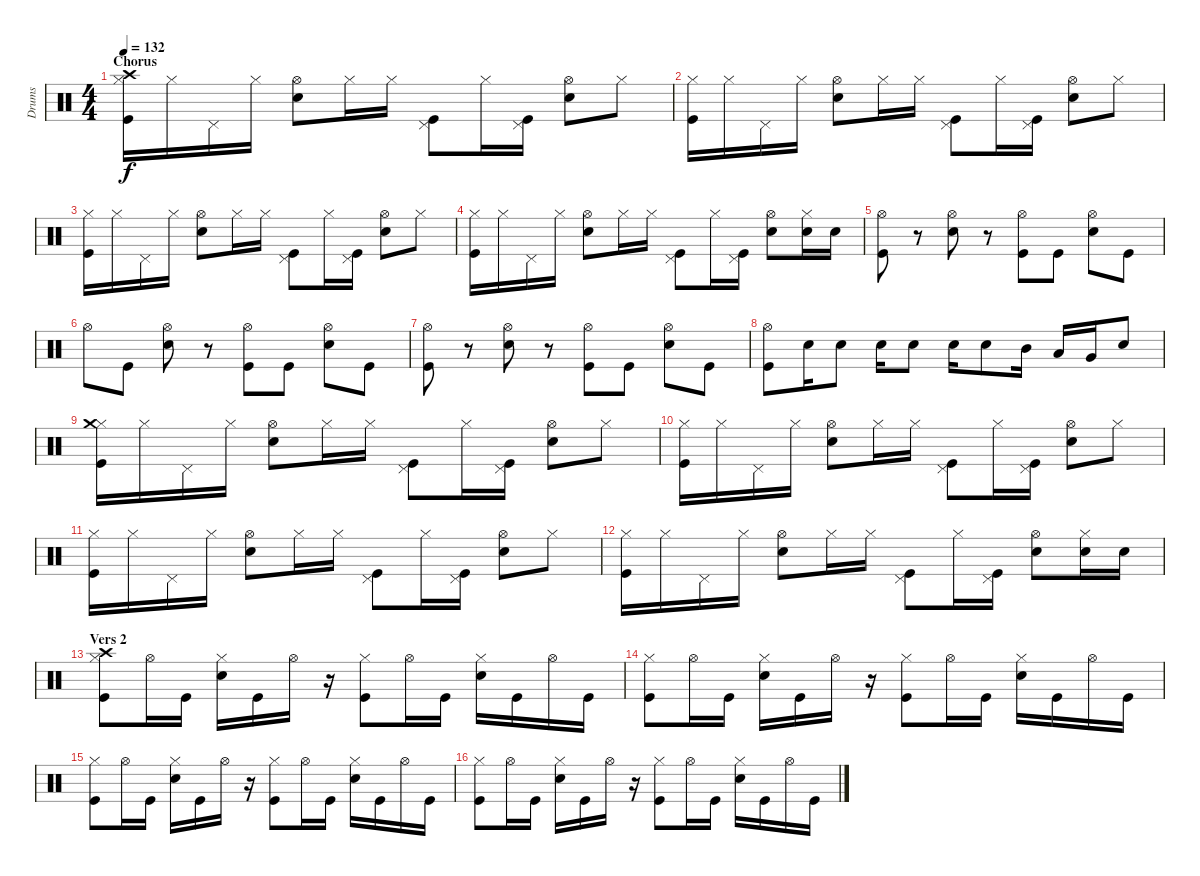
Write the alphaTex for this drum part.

\track ("Drums" "Drums") {instrument percussion}
\staff {score}
\articulation defaults
\ts (4 4)
\section ("" "Chorus")
\tempo 132
\clef neutral
\ks c
("Hi-Hat (closed)" "Crash high (hit)" "Kick (hit)").16{dy f} "Hi-Hat (closed)".16 "Pedal Hi-Hat (hit)".16 "Hi-Hat (closed)".16 ("Hi-Hat (open)" "Snare (hit) 2").8 "Hi-Hat (closed)".16 "Hi-Hat (closed)".16 ("Pedal Hi-Hat (hit)" "Kick (hit)").8 "Hi-Hat (closed)".16 ("Pedal Hi-Hat (hit)" "Kick (hit)").16 ("Hi-Hat (open)" "Snare (hit) 2").8 "Hi-Hat (closed)".8 |
("Hi-Hat (closed)" "Kick (hit)").16 "Hi-Hat (closed)".16 "Pedal Hi-Hat (hit)".16 "Hi-Hat (closed)".16 ("Hi-Hat (open)" "Snare (hit) 2").8 "Hi-Hat (closed)".16 "Hi-Hat (closed)".16 ("Pedal Hi-Hat (hit)" "Kick (hit)").8 "Hi-Hat (closed)".16 ("Pedal Hi-Hat (hit)" "Kick (hit)").16 ("Hi-Hat (open)" "Snare (hit) 2").8 "Hi-Hat (closed)".8 |
("Hi-Hat (closed)" "Kick (hit)").16 "Hi-Hat (closed)".16 "Pedal Hi-Hat (hit)".16 "Hi-Hat (closed)".16 ("Hi-Hat (open)" "Snare (hit) 2").8 "Hi-Hat (closed)".16 "Hi-Hat (closed)".16 ("Pedal Hi-Hat (hit)" "Kick (hit)").8 "Hi-Hat (closed)".16 ("Pedal Hi-Hat (hit)" "Kick (hit)").16 ("Hi-Hat (open)" "Snare (hit) 2").8 "Hi-Hat (closed)".8 |
("Hi-Hat (closed)" "Kick (hit)").16 "Hi-Hat (closed)".16 "Pedal Hi-Hat (hit)".16 "Hi-Hat (closed)".16 ("Hi-Hat (open)" "Snare (hit) 2").8 "Hi-Hat (closed)".16 "Hi-Hat (closed)".16 ("Pedal Hi-Hat (hit)" "Kick (hit)").8 "Hi-Hat (closed)".16 ("Pedal Hi-Hat (hit)" "Kick (hit)").16 ("Hi-Hat (open)" "Snare (hit) 2").8 ("Hi-Hat (closed)" "Snare (hit) 2").16 "Snare (hit) 2".16 |
("Hi-Hat (open)" "Kick (hit)").8 r.8 ("Hi-Hat (open)" "Snare (hit) 2").8 r.8 ("Hi-Hat (open)" "Kick (hit)").8 "Kick (hit)".8 ("Hi-Hat (open)" "Snare (hit) 2").8 "Kick (hit)".8 |
"Hi-Hat (open)".8 "Kick (hit)".8 ("Hi-Hat (open)" "Snare (hit) 2").8 r.8 ("Hi-Hat (open)" "Kick (hit)").8 "Kick (hit)".8 ("Hi-Hat (open)" "Snare (hit) 2").8 "Kick (hit)".8 |
("Hi-Hat (open)" "Kick (hit)").8 r.8 ("Hi-Hat (open)" "Snare (hit) 2").8 r.8 ("Hi-Hat (open)" "Kick (hit)").8 "Kick (hit)".8 ("Hi-Hat (open)" "Snare (hit) 2").8 "Kick (hit)".8 |
("Hi-Hat (open)" "Kick (hit)").8 "Snare (hit) 2".16 "Snare (hit) 2".8 "Snare (hit) 2".16 "Snare (hit) 2".8 "Snare (hit) 2".16 "Snare (hit) 2".8 "Mid Tom (hit)".16 "Low Tom (hit)".16 "Very Low Tom (hit)".16 "Snare (hit) 2".8 |
("Hi-Hat (closed)" "Crash medium (hit)" "Kick (hit)").16 "Hi-Hat (closed)".16 "Pedal Hi-Hat (hit)".16 "Hi-Hat (closed)".16 ("Hi-Hat (open)" "Snare (hit) 2").8 "Hi-Hat (closed)".16 "Hi-Hat (closed)".16 ("Pedal Hi-Hat (hit)" "Kick (hit)").8 "Hi-Hat (closed)".16 ("Pedal Hi-Hat (hit)" "Kick (hit)").16 ("Hi-Hat (open)" "Snare (hit) 2").8 "Hi-Hat (closed)".8 |
("Hi-Hat (closed)" "Kick (hit)").16 "Hi-Hat (closed)".16 "Pedal Hi-Hat (hit)".16 "Hi-Hat (closed)".16 ("Hi-Hat (open)" "Snare (hit) 2").8 "Hi-Hat (closed)".16 "Hi-Hat (closed)".16 ("Pedal Hi-Hat (hit)" "Kick (hit)").8 "Hi-Hat (closed)".16 ("Pedal Hi-Hat (hit)" "Kick (hit)").16 ("Hi-Hat (open)" "Snare (hit) 2").8 "Hi-Hat (closed)".8 |
("Hi-Hat (closed)" "Kick (hit)").16 "Hi-Hat (closed)".16 "Pedal Hi-Hat (hit)".16 "Hi-Hat (closed)".16 ("Hi-Hat (open)" "Snare (hit) 2").8 "Hi-Hat (closed)".16 "Hi-Hat (closed)".16 ("Pedal Hi-Hat (hit)" "Kick (hit)").8 "Hi-Hat (closed)".16 ("Pedal Hi-Hat (hit)" "Kick (hit)").16 ("Hi-Hat (open)" "Snare (hit) 2").8 "Hi-Hat (closed)".8 |
("Hi-Hat (closed)" "Kick (hit)").16 "Hi-Hat (closed)".16 "Pedal Hi-Hat (hit)".16 "Hi-Hat (closed)".16 ("Hi-Hat (open)" "Snare (hit) 2").8 "Hi-Hat (closed)".16 "Hi-Hat (closed)".16 ("Pedal Hi-Hat (hit)" "Kick (hit)").8 "Hi-Hat (closed)".16 ("Pedal Hi-Hat (hit)" "Kick (hit)").16 ("Hi-Hat (open)" "Snare (hit) 2").8 ("Hi-Hat (closed)" "Snare (hit) 2").16 "Snare (hit) 2".16 |
\section ("" "Vers 2")
("Hi-Hat (closed)" "Crash high (hit)" "Kick (hit)").8 "Hi-Hat (open)".16 "Kick (hit)".16 ("Hi-Hat (closed)" "Snare (hit) 2").16 "Kick (hit)".16 "Hi-Hat (open)".16 r.16 ("Hi-Hat (closed)" "Kick (hit)").8 "Hi-Hat (open)".16 "Kick (hit)".16 ("Hi-Hat (closed)" "Snare (hit) 2").16 "Kick (hit)".16 "Hi-Hat (open)".16 "Kick (hit)".16 |
("Hi-Hat (closed)" "Kick (hit)").8 "Hi-Hat (open)".16 "Kick (hit)".16 ("Hi-Hat (closed)" "Snare (hit) 2").16 "Kick (hit)".16 "Hi-Hat (open)".16 r.16 ("Hi-Hat (closed)" "Kick (hit)").8 "Hi-Hat (open)".16 "Kick (hit)".16 ("Hi-Hat (closed)" "Snare (hit) 2").16 "Kick (hit)".16 "Hi-Hat (open)".16 "Kick (hit)".16 |
("Hi-Hat (closed)" "Kick (hit)").8 "Hi-Hat (open)".16 "Kick (hit)".16 ("Hi-Hat (closed)" "Snare (hit) 2").16 "Kick (hit)".16 "Hi-Hat (open)".16 r.16 ("Hi-Hat (closed)" "Kick (hit)").8 "Hi-Hat (open)".16 "Kick (hit)".16 ("Hi-Hat (closed)" "Snare (hit) 2").16 "Kick (hit)".16 "Hi-Hat (open)".16 "Kick (hit)".16 |
("Hi-Hat (closed)" "Kick (hit)").8 "Hi-Hat (open)".16 "Kick (hit)".16 ("Hi-Hat (closed)" "Snare (hit) 2").16 "Kick (hit)".16 "Hi-Hat (open)".16 r.16 ("Hi-Hat (closed)" "Kick (hit)").8 "Hi-Hat (open)".16 "Kick (hit)".16 ("Hi-Hat (closed)" "Snare (hit) 2").16 "Kick (hit)".16 "Hi-Hat (open)".16 "Kick (hit)".16
